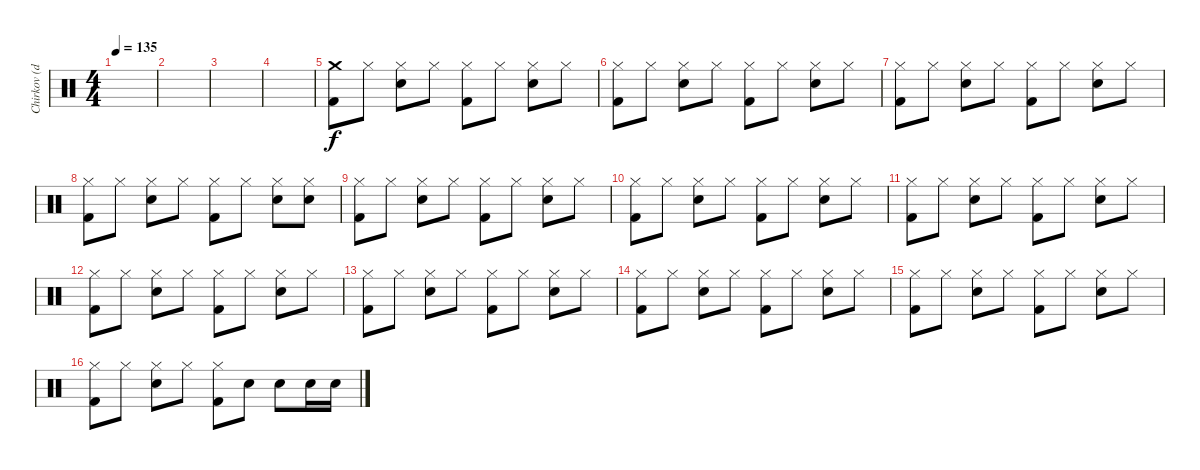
\track ("Chirkov (drums)" "Chirkov (d") {instrument percussion}
\staff {score}
\articulation defaults
\ts (4 4)
\tempo 135
\clef neutral
\ks c
|
|
|
|
("Crash medium (hit)" "Kick (hit) 2").8 "Hi-Hat (closed)".8 ("Hi-Hat (closed)" "Snare (hit) 2").8 "Hi-Hat (closed)".8 ("Hi-Hat (closed)" "Kick (hit) 2").8 "Hi-Hat (closed)".8 ("Hi-Hat (closed)" "Snare (hit) 2").8 "Hi-Hat (closed)".8 |
("Hi-Hat (closed)" "Kick (hit) 2").8 "Hi-Hat (closed)".8 ("Hi-Hat (closed)" "Snare (hit) 2").8 "Hi-Hat (closed)".8 ("Hi-Hat (closed)" "Kick (hit) 2").8 "Hi-Hat (closed)".8 ("Hi-Hat (closed)" "Snare (hit) 2").8 "Hi-Hat (closed)".8 |
("Hi-Hat (closed)" "Kick (hit) 2").8 "Hi-Hat (closed)".8 ("Hi-Hat (closed)" "Snare (hit) 2").8 "Hi-Hat (closed)".8 ("Hi-Hat (closed)" "Kick (hit) 2").8 "Hi-Hat (closed)".8 ("Hi-Hat (closed)" "Snare (hit) 2").8 "Hi-Hat (closed)".8 |
("Hi-Hat (closed)" "Kick (hit) 2").8 "Hi-Hat (closed)".8 ("Hi-Hat (closed)" "Snare (hit) 2").8 "Hi-Hat (closed)".8 ("Hi-Hat (closed)" "Kick (hit) 2").8 "Hi-Hat (closed)".8 ("Hi-Hat (closed)" "Snare (hit) 2").8 ("Hi-Hat (closed)" "Snare (hit) 2").8 |
("Hi-Hat (closed)" "Kick (hit) 2").8 "Hi-Hat (closed)".8 ("Hi-Hat (closed)" "Snare (hit) 2").8 "Hi-Hat (closed)".8 ("Hi-Hat (closed)" "Kick (hit) 2").8 "Hi-Hat (closed)".8 ("Hi-Hat (closed)" "Snare (hit) 2").8 "Hi-Hat (closed)".8 |
("Hi-Hat (closed)" "Kick (hit) 2").8 "Hi-Hat (closed)".8 ("Hi-Hat (closed)" "Snare (hit) 2").8 "Hi-Hat (closed)".8 ("Hi-Hat (closed)" "Kick (hit) 2").8 "Hi-Hat (closed)".8 ("Hi-Hat (closed)" "Snare (hit) 2").8 "Hi-Hat (closed)".8 |
("Hi-Hat (closed)" "Kick (hit) 2").8 "Hi-Hat (closed)".8 ("Hi-Hat (closed)" "Snare (hit) 2").8 "Hi-Hat (closed)".8 ("Hi-Hat (closed)" "Kick (hit) 2").8 "Hi-Hat (closed)".8 ("Hi-Hat (closed)" "Snare (hit) 2").8 "Hi-Hat (closed)".8 |
("Hi-Hat (closed)" "Kick (hit) 2").8 "Hi-Hat (closed)".8 ("Hi-Hat (closed)" "Snare (hit) 2").8 "Hi-Hat (closed)".8 ("Hi-Hat (closed)" "Kick (hit) 2").8 "Hi-Hat (closed)".8 ("Hi-Hat (closed)" "Snare (hit) 2").8 "Hi-Hat (closed)".8 |
("Hi-Hat (closed)" "Kick (hit) 2").8 "Hi-Hat (closed)".8 ("Hi-Hat (closed)" "Snare (hit) 2").8 "Hi-Hat (closed)".8 ("Hi-Hat (closed)" "Kick (hit) 2").8 "Hi-Hat (closed)".8 ("Hi-Hat (closed)" "Snare (hit) 2").8 "Hi-Hat (closed)".8 |
("Hi-Hat (closed)" "Kick (hit) 2").8 "Hi-Hat (closed)".8 ("Hi-Hat (closed)" "Snare (hit) 2").8 "Hi-Hat (closed)".8 ("Hi-Hat (closed)" "Kick (hit) 2").8 "Hi-Hat (closed)".8 ("Hi-Hat (closed)" "Snare (hit) 2").8 "Hi-Hat (closed)".8 |
("Hi-Hat (closed)" "Kick (hit) 2").8 "Hi-Hat (closed)".8 ("Hi-Hat (closed)" "Snare (hit) 2").8 "Hi-Hat (closed)".8 ("Hi-Hat (closed)" "Kick (hit) 2").8 "Hi-Hat (closed)".8 ("Hi-Hat (closed)" "Snare (hit) 2").8 "Hi-Hat (closed)".8 |
("Hi-Hat (closed)" "Kick (hit) 2").8 "Hi-Hat (closed)".8 ("Hi-Hat (closed)" "Snare (hit) 2").8 "Hi-Hat (closed)".8 ("Hi-Hat (closed)" "Kick (hit) 2").8 "Snare (hit) 2".8 "Snare (hit) 2".8 "Snare (hit) 2".16 "Snare (hit) 2".16
